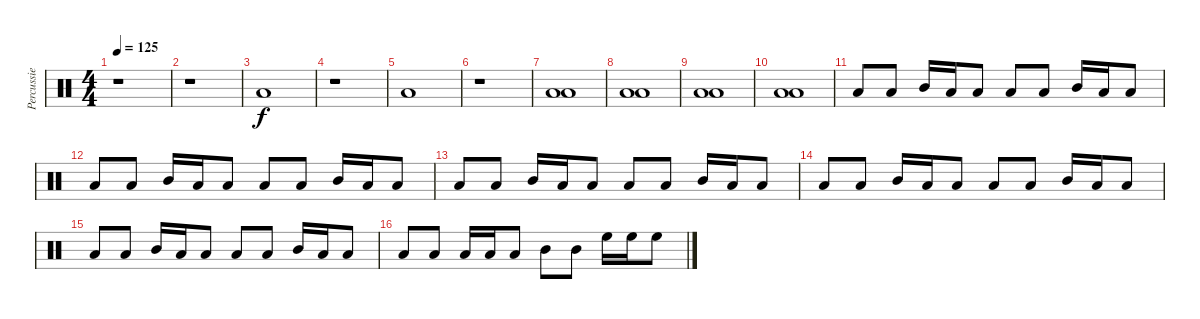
\track ("Percussie" "Percussie") {instrument percussion}
\staff {score}
\articulation defaults
\ts (4 4)
\tempo 125
\clef neutral
\ks c
r.1{dy f} |
r.1 |
"Low Floor Tom (hit)".1 |
r.1 |
"Low Floor Tom (hit)".1 |
r.1 |
("Low Tom (hit)" "Low Floor Tom (hit)").1 |
("Low Tom (hit)" "Low Floor Tom (hit)").1 |
("Low Tom (hit)" "Low Floor Tom (hit)").1 |
("Low Tom (hit)" "Low Floor Tom (hit)").1 |
"Low Floor Tom (hit)".8 "Low Floor Tom (hit)".8 "Mid Tom (hit)".16 "Low Tom (hit)".16 "Low Floor Tom (hit)".8 "Low Floor Tom (hit)".8 "Low Floor Tom (hit)".8 "Mid Tom (hit)".16 "Low Tom (hit)".16 "Low Floor Tom (hit)".8 |
"Low Floor Tom (hit)".8 "Low Floor Tom (hit)".8 "Mid Tom (hit)".16 "Low Tom (hit)".16 "Low Floor Tom (hit)".8 "Low Floor Tom (hit)".8 "Low Floor Tom (hit)".8 "Mid Tom (hit)".16 "Low Tom (hit)".16 "Low Floor Tom (hit)".8 |
"Low Floor Tom (hit)".8 "Low Floor Tom (hit)".8 "Mid Tom (hit)".16 "Low Tom (hit)".16 "Low Floor Tom (hit)".8 "Low Floor Tom (hit)".8 "Low Floor Tom (hit)".8 "Mid Tom (hit)".16 "Low Tom (hit)".16 "Low Floor Tom (hit)".8 |
"Low Floor Tom (hit)".8 "Low Floor Tom (hit)".8 "Mid Tom (hit)".16 "Low Tom (hit)".16 "Low Floor Tom (hit)".8 "Low Floor Tom (hit)".8 "Low Floor Tom (hit)".8 "Mid Tom (hit)".16 "Low Tom (hit)".16 "Low Floor Tom (hit)".8 |
"Low Floor Tom (hit)".8 "Low Floor Tom (hit)".8 "Mid Tom (hit)".16 "Low Tom (hit)".16 "Low Floor Tom (hit)".8 "Low Floor Tom (hit)".8 "Low Floor Tom (hit)".8 "Mid Tom (hit)".16 "Low Tom (hit)".16 "Low Floor Tom (hit)".8 |
"Low Floor Tom (hit)".8 "Low Floor Tom (hit)".8 "Low Tom (hit)".16 "Low Tom (hit)".16 "Low Tom (hit)".8 "Mid Tom (hit)".8 "Mid Tom (hit)".8 "High Floor Tom (hit)".16 "High Floor Tom (hit)".16 "High Floor Tom (hit)".8
